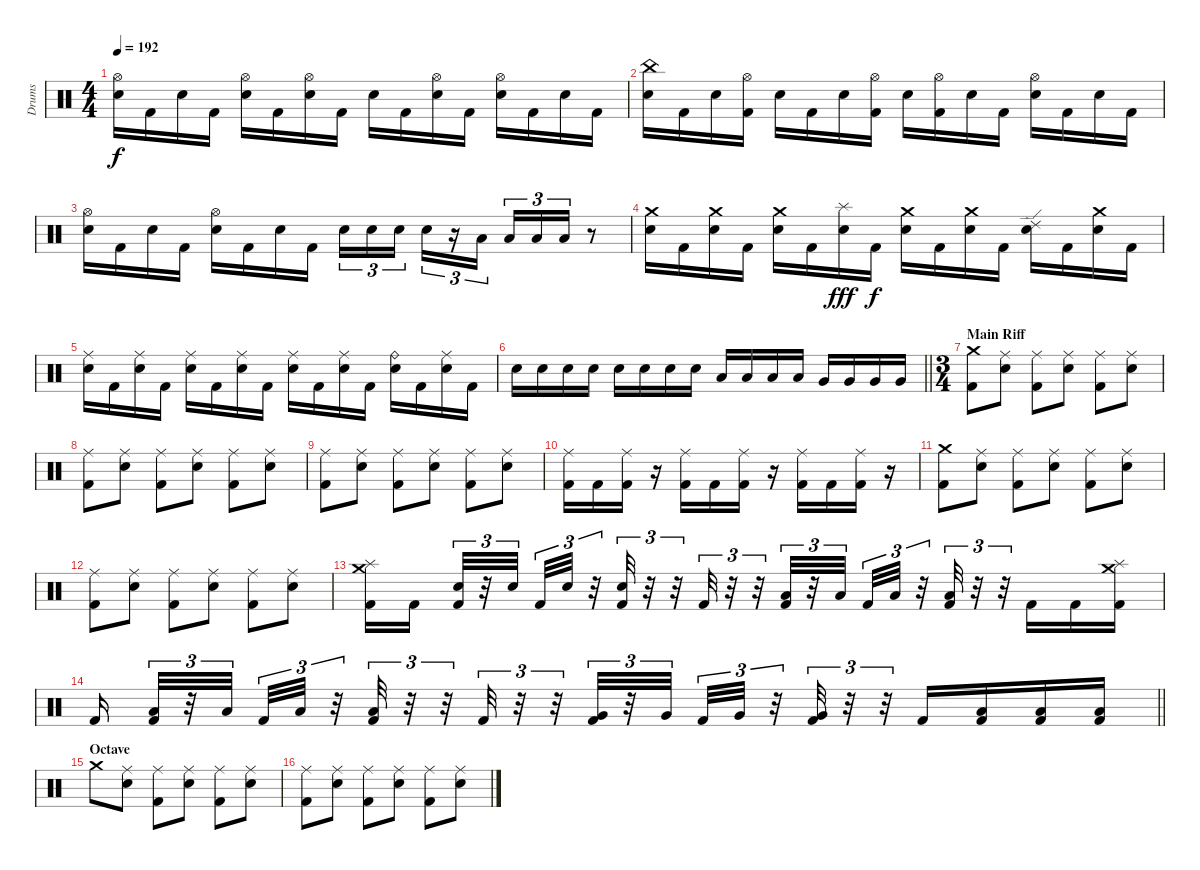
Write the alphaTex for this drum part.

\track ("Drums" "Drums") {instrument percussion}
\staff {score}
\articulation defaults
\ts (4 4)
\tempo 192
\clef neutral
\ks c
("Hi-Hat (open)" "Electric Snare (hit)").16{dy f} "Kick (hit) 2".16 "Electric Snare (hit)".16 "Kick (hit) 2".16 ("Hi-Hat (open)" "Electric Snare (hit)").16 "Kick (hit) 2".16 ("Hi-Hat (open)" "Electric Snare (hit)").16 "Kick (hit) 2".16 "Electric Snare (hit)".16 "Kick (hit) 2".16 ("Hi-Hat (open)" "Electric Snare (hit)").16 "Kick (hit) 2".16 ("Hi-Hat (open)" "Electric Snare (hit)").16 "Kick (hit) 2".16 "Electric Snare (hit)".16 "Kick (hit) 2".16 |
("China (hit)" "Electric Snare (hit)").16 "Kick (hit) 2".16 "Electric Snare (hit)".16 ("Hi-Hat (open)" "Kick (hit) 2").16 "Electric Snare (hit)".16 "Kick (hit) 2".16 "Electric Snare (hit)".16 ("Hi-Hat (open)" "Kick (hit) 2").16 "Electric Snare (hit)".16 ("Hi-Hat (open)" "Kick (hit) 2").16 "Electric Snare (hit)".16 "Kick (hit) 2".16 ("Hi-Hat (open)" "Electric Snare (hit)").16 "Kick (hit) 2".16 "Electric Snare (hit)".16 "Kick (hit) 2".16 |
("Hi-Hat (open)" "Electric Snare (hit)").16 "Kick (hit) 2".16 "Electric Snare (hit)".16 "Kick (hit) 2".16 ("Hi-Hat (open)" "Electric Snare (hit)").16 "Kick (hit) 2".16 "Electric Snare (hit)".16 "Kick (hit) 2".16 "Electric Snare (hit)".16{tu (3 2)} "Electric Snare (hit)".16{tu (3 2)} "Electric Snare (hit)".16{tu (3 2) beam splitsecondary} "Electric Snare (hit)".16{tu (3 2)} r.16{tu (3 2)} "Low Tom (hit)".16{tu (3 2)} "Low Tom (hit)".16{tu (3 2)} "Low Tom (hit)".16{tu (3 2)} "Low Tom (hit)".16{tu (3 2)} r.8 |
("Crash medium (hit)" "Electric Snare (hit)").16 "Kick (hit) 2".16 ("Crash medium (hit)" "Electric Snare (hit)").16 "Kick (hit) 2".16 ("Crash medium (hit)" "Electric Snare (hit)").16 "Kick (hit) 2".16 ("Splash (hit)" "Electric Snare (hit)").16{dy fff} "Kick (hit) 2".16{dy f} ("Crash medium (hit)" "Electric Snare (hit)").16 "Kick (hit) 2".16 ("Crash medium (hit)" "Electric Snare (hit)").16 "Kick (hit) 2".16 ("Ride (edge) 2" "Electric Snare (hit)").16 "Kick (hit) 2".16 ("Crash medium (hit)" "Electric Snare (hit)").16 "Kick (hit) 2".16 |
("Ride (middle)" "Electric Snare (hit)").16 "Kick (hit) 2".16 ("Ride (middle)" "Electric Snare (hit)").16 "Kick (hit) 2".16 ("Ride (middle)" "Electric Snare (hit)").16 "Kick (hit) 2".16 ("Ride (middle)" "Electric Snare (hit)").16 "Kick (hit) 2".16 ("Ride (middle)" "Electric Snare (hit)").16 "Kick (hit) 2".16 ("Ride (middle)" "Electric Snare (hit)").16 "Kick (hit) 2".16 ("Ride (bell)" "Electric Snare (hit)").16 "Kick (hit) 2".16 ("Ride (middle)" "Electric Snare (hit)").16 "Kick (hit) 2".16 |
\barLineRight lightlight "Electric Snare (hit)".16 "Electric Snare (hit)".16 "Electric Snare (hit)".16 "Electric Snare (hit)".16 "Electric Snare (hit)".16 "Electric Snare (hit)".16 "Electric Snare (hit)".16 "Electric Snare (hit)".16 "Low Tom (hit)".16 "Low Tom (hit)".16 "Low Tom (hit)".16 "Low Tom (hit)".16 "Very Low Tom (hit)".16 "Very Low Tom (hit)".16 "Very Low Tom (hit)".16 "Very Low Tom (hit)".16
|
\ts (3 4)
\section ("" "Main Riff")
("Crash medium (hit)" "Kick (hit) 2").8 ("Ride (middle)" "Electric Snare (hit)").8 ("Ride (middle)" "Kick (hit) 2").8 ("Ride (middle)" "Electric Snare (hit)").8 ("Ride (middle)" "Kick (hit) 2").8 ("Ride (middle)" "Electric Snare (hit)").8 |
("Ride (middle)" "Kick (hit) 2").8 ("Ride (middle)" "Electric Snare (hit)").8 ("Ride (middle)" "Kick (hit) 2").8 ("Ride (middle)" "Electric Snare (hit)").8 ("Ride (middle)" "Kick (hit) 2").8 ("Ride (middle)" "Electric Snare (hit)").8 |
("Ride (middle)" "Kick (hit) 2").8 ("Ride (middle)" "Electric Snare (hit)").8 ("Ride (middle)" "Kick (hit) 2").8 ("Ride (middle)" "Electric Snare (hit)").8 ("Ride (middle)" "Kick (hit) 2").8 ("Ride (middle)" "Electric Snare (hit)").8 |
("Ride (middle)" "Kick (hit) 2").16 "Kick (hit) 2".16 ("Ride (middle)" "Kick (hit) 2").16 r.16 ("Ride (middle)" "Kick (hit) 2").16 "Kick (hit) 2".16 ("Ride (middle)" "Kick (hit) 2").16 r.16 ("Ride (middle)" "Kick (hit) 2").16 "Kick (hit) 2".16 ("Ride (middle)" "Kick (hit) 2").16 r.16 |
("Crash medium (hit)" "Kick (hit) 2").8 ("Ride (middle)" "Electric Snare (hit)").8 ("Ride (middle)" "Kick (hit) 2").8 ("Ride (middle)" "Electric Snare (hit)").8 ("Ride (middle)" "Kick (hit) 2").8 ("Ride (middle)" "Electric Snare (hit)").8 |
("Ride (middle)" "Kick (hit) 2").8 ("Ride (middle)" "Electric Snare (hit)").8 ("Ride (middle)" "Kick (hit) 2").8 ("Ride (middle)" "Electric Snare (hit)").8 ("Ride (middle)" "Kick (hit) 2").8 ("Ride (middle)" "Electric Snare (hit)").8 |
("Splash (hit)" "Crash medium (hit)" "Kick (hit) 2").16 "Kick (hit) 2".16{beam splitsecondary} ("Electric Snare (hit)" "Kick (hit) 2").32{tu (3 2)} r.32{tu (3 2)} "Electric Snare (hit)".32{tu (3 2) beam splitsecondary} "Kick (hit) 2".32{tu (3 2)} "Electric Snare (hit)".32{tu (3 2)} r.32{tu (3 2)} ("Electric Snare (hit)" "Kick (hit) 2").32{tu (3 2)} r.32{tu (3 2)} r.32{tu (3 2)} "Kick (hit) 2".32{tu (3 2)} r.32{tu (3 2)} r.32{tu (3 2)} ("Low Tom (hit)" "Kick (hit) 2").32{tu (3 2)} r.32{tu (3 2)} "Low Tom (hit)".32{tu (3 2) beam splitsecondary} "Kick (hit) 2".32{tu (3 2)} "Low Tom (hit)".32{tu (3 2)} r.32{tu (3 2)} ("Low Tom (hit)" "Kick (hit) 2").32{tu (3 2)} r.32{tu (3 2)} r.32{tu (3 2)} "Kick (hit) 2".16 "Kick (hit) 2".16 ("Splash (hit)" "Crash medium (hit)" "Kick (hit) 2").16 |
\barLineRight lightlight "Kick (hit) 2".16
("Low Tom (hit)" "Kick (hit) 2").32{tu (3 2)} r.32{tu (3 2)} "Low Tom (hit)".32{tu (3 2) beam splitsecondary} "Kick (hit) 2".32{tu (3 2)} "Low Tom (hit)".32{tu (3 2)} r.32{tu (3 2)} ("Low Tom (hit)" "Kick (hit) 2").32{tu (3 2)} r.32{tu (3 2)} r.32{tu (3 2)} "Kick (hit) 2".32{tu (3 2)} r.32{tu (3 2)} r.32{tu (3 2)} ("Very Low Tom (hit)" "Kick (hit) 2").32{tu (3 2)} r.32{tu (3 2)} "Very Low Tom (hit)".32{tu (3 2) beam splitsecondary} "Kick (hit) 2".32{tu (3 2)} "Very Low Tom (hit)".32{tu (3 2)} r.32{tu (3 2)} ("Very Low Tom (hit)" "Kick (hit) 2").32{tu (3 2)} r.32{tu (3 2)} r.32{tu (3 2)} "Kick (hit) 2".16 ("Low Tom (hit)" "Kick (hit) 2").16 ("Low Tom (hit)" "Kick (hit) 2").16 ("Low Tom (hit)" "Kick (hit) 2").16 |
\section ("" "Octave")
"Crash medium (hit)".8 ("Ride (middle)" "Electric Snare (hit)").8 ("Ride (middle)" "Kick (hit) 2").8 ("Ride (middle)" "Electric Snare (hit)").8 ("Ride (middle)" "Kick (hit) 2").8 ("Ride (middle)" "Electric Snare (hit)").8 |
("Ride (middle)" "Kick (hit) 2").8 ("Ride (middle)" "Electric Snare (hit)").8 ("Ride (middle)" "Kick (hit) 2").8 ("Ride (middle)" "Electric Snare (hit)").8 ("Ride (middle)" "Kick (hit) 2").8 ("Ride (middle)" "Electric Snare (hit)").8
